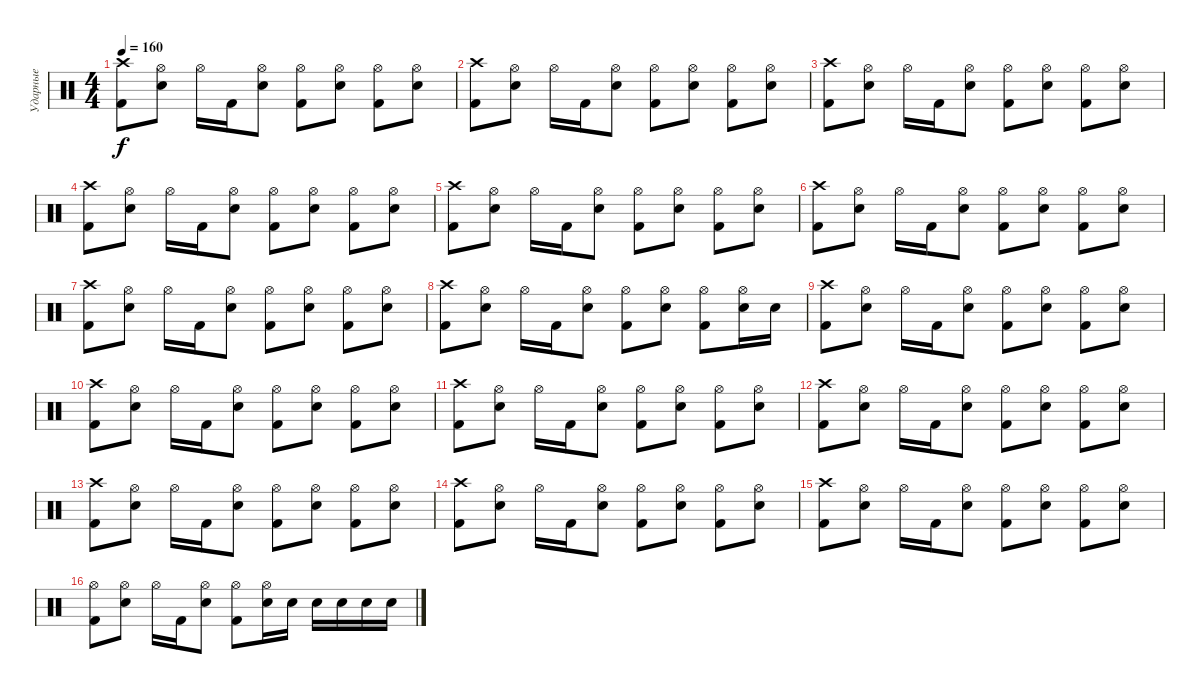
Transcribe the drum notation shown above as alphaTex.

\track ("Ударные" "Ударные") {instrument percussion}
\staff {score}
\articulation defaults
\ts (4 4)
\tempo 160
\clef neutral
\ks c
("Kick (hit) 2" "Crash high (hit)").8{dy f} ("Electric Snare (hit)" "Hi-Hat (open)").8 "Hi-Hat (open)".16 "Kick (hit) 2".16 ("Electric Snare (hit)" "Hi-Hat (open)").8 ("Kick (hit) 2" "Hi-Hat (open)").8 ("Electric Snare (hit)" "Hi-Hat (open)").8 ("Kick (hit) 2" "Hi-Hat (open)").8 ("Electric Snare (hit)" "Hi-Hat (open)").8 |
("Kick (hit) 2" "Crash high (hit)").8 ("Electric Snare (hit)" "Hi-Hat (open)").8 "Hi-Hat (open)".16 "Kick (hit) 2".16 ("Electric Snare (hit)" "Hi-Hat (open)").8 ("Kick (hit) 2" "Hi-Hat (open)").8 ("Electric Snare (hit)" "Hi-Hat (open)").8 ("Kick (hit) 2" "Hi-Hat (open)").8 ("Electric Snare (hit)" "Hi-Hat (open)").8 |
("Kick (hit) 2" "Crash high (hit)").8 ("Electric Snare (hit)" "Hi-Hat (open)").8 "Hi-Hat (open)".16 "Kick (hit) 2".16 ("Electric Snare (hit)" "Hi-Hat (open)").8 ("Kick (hit) 2" "Hi-Hat (open)").8 ("Electric Snare (hit)" "Hi-Hat (open)").8 ("Kick (hit) 2" "Hi-Hat (open)").8 ("Electric Snare (hit)" "Hi-Hat (open)").8 |
("Kick (hit) 2" "Crash high (hit)").8 ("Electric Snare (hit)" "Hi-Hat (open)").8 "Hi-Hat (open)".16 "Kick (hit) 2".16 ("Electric Snare (hit)" "Hi-Hat (open)").8 ("Kick (hit) 2" "Hi-Hat (open)").8 ("Electric Snare (hit)" "Hi-Hat (open)").8 ("Kick (hit) 2" "Hi-Hat (open)").8 ("Electric Snare (hit)" "Hi-Hat (open)").8 |
("Kick (hit) 2" "Crash high (hit)").8 ("Electric Snare (hit)" "Hi-Hat (open)").8 "Hi-Hat (open)".16 "Kick (hit) 2".16 ("Electric Snare (hit)" "Hi-Hat (open)").8 ("Kick (hit) 2" "Hi-Hat (open)").8 ("Electric Snare (hit)" "Hi-Hat (open)").8 ("Kick (hit) 2" "Hi-Hat (open)").8 ("Electric Snare (hit)" "Hi-Hat (open)").8 |
("Kick (hit) 2" "Crash high (hit)").8 ("Electric Snare (hit)" "Hi-Hat (open)").8 "Hi-Hat (open)".16 "Kick (hit) 2".16 ("Electric Snare (hit)" "Hi-Hat (open)").8 ("Kick (hit) 2" "Hi-Hat (open)").8 ("Electric Snare (hit)" "Hi-Hat (open)").8 ("Kick (hit) 2" "Hi-Hat (open)").8 ("Electric Snare (hit)" "Hi-Hat (open)").8 |
("Kick (hit) 2" "Crash high (hit)").8 ("Electric Snare (hit)" "Hi-Hat (open)").8 "Hi-Hat (open)".16 "Kick (hit) 2".16 ("Electric Snare (hit)" "Hi-Hat (open)").8 ("Kick (hit) 2" "Hi-Hat (open)").8 ("Electric Snare (hit)" "Hi-Hat (open)").8 ("Kick (hit) 2" "Hi-Hat (open)").8 ("Electric Snare (hit)" "Hi-Hat (open)").8 |
("Kick (hit) 2" "Crash high (hit)").8 ("Electric Snare (hit)" "Hi-Hat (open)").8 "Hi-Hat (open)".16 "Kick (hit) 2".16 ("Electric Snare (hit)" "Hi-Hat (open)").8 ("Kick (hit) 2" "Hi-Hat (open)").8 ("Electric Snare (hit)" "Hi-Hat (open)").8 ("Kick (hit) 2" "Hi-Hat (open)").8 ("Electric Snare (hit)" "Hi-Hat (open)").16 "Electric Snare (hit)".16 |
("Kick (hit) 2" "Crash high (hit)").8 ("Electric Snare (hit)" "Hi-Hat (open)").8 "Hi-Hat (open)".16 "Kick (hit) 2".16 ("Electric Snare (hit)" "Hi-Hat (open)").8 ("Kick (hit) 2" "Hi-Hat (open)").8 ("Electric Snare (hit)" "Hi-Hat (open)").8 ("Kick (hit) 2" "Hi-Hat (open)").8 ("Electric Snare (hit)" "Hi-Hat (open)").8 |
("Kick (hit) 2" "Crash high (hit)").8 ("Electric Snare (hit)" "Hi-Hat (open)").8 "Hi-Hat (open)".16 "Kick (hit) 2".16 ("Electric Snare (hit)" "Hi-Hat (open)").8 ("Kick (hit) 2" "Hi-Hat (open)").8 ("Electric Snare (hit)" "Hi-Hat (open)").8 ("Kick (hit) 2" "Hi-Hat (open)").8 ("Electric Snare (hit)" "Hi-Hat (open)").8 |
("Kick (hit) 2" "Crash high (hit)").8 ("Electric Snare (hit)" "Hi-Hat (open)").8 "Hi-Hat (open)".16 "Kick (hit) 2".16 ("Electric Snare (hit)" "Hi-Hat (open)").8 ("Kick (hit) 2" "Hi-Hat (open)").8 ("Electric Snare (hit)" "Hi-Hat (open)").8 ("Kick (hit) 2" "Hi-Hat (open)").8 ("Electric Snare (hit)" "Hi-Hat (open)").8 |
("Kick (hit) 2" "Crash high (hit)").8 ("Electric Snare (hit)" "Hi-Hat (open)").8 "Hi-Hat (open)".16 "Kick (hit) 2".16 ("Electric Snare (hit)" "Hi-Hat (open)").8 ("Kick (hit) 2" "Hi-Hat (open)").8 ("Electric Snare (hit)" "Hi-Hat (open)").8 ("Kick (hit) 2" "Hi-Hat (open)").8 ("Electric Snare (hit)" "Hi-Hat (open)").8 |
("Kick (hit) 2" "Crash high (hit)").8 ("Electric Snare (hit)" "Hi-Hat (open)").8 "Hi-Hat (open)".16 "Kick (hit) 2".16 ("Electric Snare (hit)" "Hi-Hat (open)").8 ("Kick (hit) 2" "Hi-Hat (open)").8 ("Electric Snare (hit)" "Hi-Hat (open)").8 ("Kick (hit) 2" "Hi-Hat (open)").8 ("Electric Snare (hit)" "Hi-Hat (open)").8 |
("Kick (hit) 2" "Crash high (hit)").8 ("Electric Snare (hit)" "Hi-Hat (open)").8 "Hi-Hat (open)".16 "Kick (hit) 2".16 ("Electric Snare (hit)" "Hi-Hat (open)").8 ("Kick (hit) 2" "Hi-Hat (open)").8 ("Electric Snare (hit)" "Hi-Hat (open)").8 ("Kick (hit) 2" "Hi-Hat (open)").8 ("Electric Snare (hit)" "Hi-Hat (open)").8 |
("Kick (hit) 2" "Crash high (hit)").8 ("Electric Snare (hit)" "Hi-Hat (open)").8 "Hi-Hat (open)".16 "Kick (hit) 2".16 ("Electric Snare (hit)" "Hi-Hat (open)").8 ("Kick (hit) 2" "Hi-Hat (open)").8 ("Electric Snare (hit)" "Hi-Hat (open)").8 ("Kick (hit) 2" "Hi-Hat (open)").8 ("Electric Snare (hit)" "Hi-Hat (open)").8 |
("Kick (hit) 2" "Hi-Hat (open)").8 ("Electric Snare (hit)" "Hi-Hat (open)").8 "Hi-Hat (open)".16 "Kick (hit) 2".16 ("Electric Snare (hit)" "Hi-Hat (open)").8 ("Kick (hit) 2" "Hi-Hat (open)").8 ("Electric Snare (hit)" "Hi-Hat (open)").16 "Electric Snare (hit)".16 "Electric Snare (hit)".16 "Electric Snare (hit)".16 "Electric Snare (hit)".16 "Electric Snare (hit)".16
